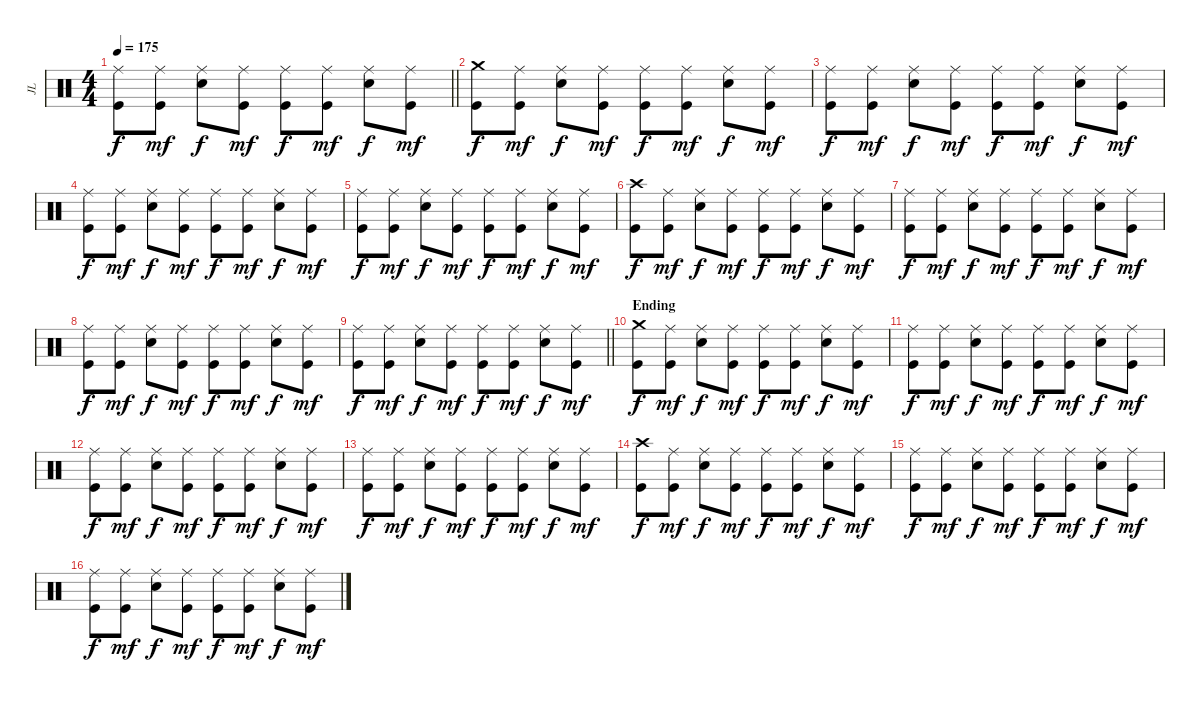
\track ("JL" "JL") {instrument percussion}
\staff {score}
\articulation defaults
\ts (4 4)
\tempo 175
\clef neutral
\barLineRight lightlight
\ks c
("Ride (middle)" "Kick (hit)").8{dy f} ("Ride (middle)" "Kick (hit)").8{dy mf} ("Ride (middle)" "Electric Snare (hit)").8{dy f} ("Ride (middle)" "Kick (hit)").8{dy mf} ("Ride (middle)" "Kick (hit)").8{dy f} ("Ride (middle)" "Kick (hit)").8{dy mf} ("Ride (middle)" "Electric Snare (hit)").8{dy f} ("Ride (middle)" "Kick (hit)").8{dy mf} |
("Crash medium (hit)" "Kick (hit)").8{dy f} ("Ride (middle)" "Kick (hit)").8{dy mf} ("Ride (middle)" "Electric Snare (hit)").8{dy f} ("Ride (middle)" "Kick (hit)").8{dy mf} ("Ride (middle)" "Kick (hit)").8{dy f} ("Ride (middle)" "Kick (hit)").8{dy mf} ("Ride (middle)" "Electric Snare (hit)").8{dy f} ("Ride (middle)" "Kick (hit)").8{dy mf} |
("Ride (middle)" "Kick (hit)").8{dy f} ("Ride (middle)" "Kick (hit)").8{dy mf} ("Ride (middle)" "Electric Snare (hit)").8{dy f} ("Ride (middle)" "Kick (hit)").8{dy mf} ("Ride (middle)" "Kick (hit)").8{dy f} ("Ride (middle)" "Kick (hit)").8{dy mf} ("Ride (middle)" "Electric Snare (hit)").8{dy f} ("Ride (middle)" "Kick (hit)").8{dy mf} |
("Ride (middle)" "Kick (hit)").8{dy f} ("Ride (middle)" "Kick (hit)").8{dy mf} ("Ride (middle)" "Electric Snare (hit)").8{dy f} ("Ride (middle)" "Kick (hit)").8{dy mf} ("Ride (middle)" "Kick (hit)").8{dy f} ("Ride (middle)" "Kick (hit)").8{dy mf} ("Ride (middle)" "Electric Snare (hit)").8{dy f} ("Ride (middle)" "Kick (hit)").8{dy mf} |
("Ride (middle)" "Kick (hit)").8{dy f} ("Ride (middle)" "Kick (hit)").8{dy mf} ("Ride (middle)" "Electric Snare (hit)").8{dy f} ("Ride (middle)" "Kick (hit)").8{dy mf} ("Ride (middle)" "Kick (hit)").8{dy f} ("Ride (middle)" "Kick (hit)").8{dy mf} ("Ride (middle)" "Electric Snare (hit)").8{dy f} ("Ride (middle)" "Kick (hit)").8{dy mf} |
("Crash high (hit)" "Kick (hit)").8{dy f} ("Ride (middle)" "Kick (hit)").8{dy mf} ("Ride (middle)" "Electric Snare (hit)").8{dy f} ("Ride (middle)" "Kick (hit)").8{dy mf} ("Ride (middle)" "Kick (hit)").8{dy f} ("Ride (middle)" "Kick (hit)").8{dy mf} ("Ride (middle)" "Electric Snare (hit)").8{dy f} ("Ride (middle)" "Kick (hit)").8{dy mf} |
("Ride (middle)" "Kick (hit)").8{dy f} ("Ride (middle)" "Kick (hit)").8{dy mf} ("Ride (middle)" "Electric Snare (hit)").8{dy f} ("Ride (middle)" "Kick (hit)").8{dy mf} ("Ride (middle)" "Kick (hit)").8{dy f} ("Ride (middle)" "Kick (hit)").8{dy mf} ("Ride (middle)" "Electric Snare (hit)").8{dy f} ("Ride (middle)" "Kick (hit)").8{dy mf} |
("Ride (middle)" "Kick (hit)").8{dy f} ("Ride (middle)" "Kick (hit)").8{dy mf} ("Ride (middle)" "Electric Snare (hit)").8{dy f} ("Ride (middle)" "Kick (hit)").8{dy mf} ("Ride (middle)" "Kick (hit)").8{dy f} ("Ride (middle)" "Kick (hit)").8{dy mf} ("Ride (middle)" "Electric Snare (hit)").8{dy f} ("Ride (middle)" "Kick (hit)").8{dy mf} |
\barLineRight lightlight
("Ride (middle)" "Kick (hit)").8{dy f} ("Ride (middle)" "Kick (hit)").8{dy mf} ("Ride (middle)" "Electric Snare (hit)").8{dy f} ("Ride (middle)" "Kick (hit)").8{dy mf} ("Ride (middle)" "Kick (hit)").8{dy f} ("Ride (middle)" "Kick (hit)").8{dy mf} ("Ride (middle)" "Electric Snare (hit)").8{dy f} ("Ride (middle)" "Kick (hit)").8{dy mf} |
\section ("" "Ending")
("Crash medium (hit)" "Kick (hit)").8{dy f} ("Ride (middle)" "Kick (hit)").8{dy mf} ("Ride (middle)" "Electric Snare (hit)").8{dy f} ("Ride (middle)" "Kick (hit)").8{dy mf} ("Ride (middle)" "Kick (hit)").8{dy f} ("Ride (middle)" "Kick (hit)").8{dy mf} ("Ride (middle)" "Electric Snare (hit)").8{dy f} ("Ride (middle)" "Kick (hit)").8{dy mf} |
("Ride (middle)" "Kick (hit)").8{dy f} ("Ride (middle)" "Kick (hit)").8{dy mf} ("Ride (middle)" "Electric Snare (hit)").8{dy f} ("Ride (middle)" "Kick (hit)").8{dy mf} ("Ride (middle)" "Kick (hit)").8{dy f} ("Ride (middle)" "Kick (hit)").8{dy mf} ("Ride (middle)" "Electric Snare (hit)").8{dy f} ("Ride (middle)" "Kick (hit)").8{dy mf} |
("Ride (middle)" "Kick (hit)").8{dy f} ("Ride (middle)" "Kick (hit)").8{dy mf} ("Ride (middle)" "Electric Snare (hit)").8{dy f} ("Ride (middle)" "Kick (hit)").8{dy mf} ("Ride (middle)" "Kick (hit)").8{dy f} ("Ride (middle)" "Kick (hit)").8{dy mf} ("Ride (middle)" "Electric Snare (hit)").8{dy f} ("Ride (middle)" "Kick (hit)").8{dy mf} |
("Ride (middle)" "Kick (hit)").8{dy f} ("Ride (middle)" "Kick (hit)").8{dy mf} ("Ride (middle)" "Electric Snare (hit)").8{dy f} ("Ride (middle)" "Kick (hit)").8{dy mf} ("Ride (middle)" "Kick (hit)").8{dy f} ("Ride (middle)" "Kick (hit)").8{dy mf} ("Ride (middle)" "Electric Snare (hit)").8{dy f} ("Ride (middle)" "Kick (hit)").8{dy mf} |
("Crash high (hit)" "Kick (hit)").8{dy f} ("Ride (middle)" "Kick (hit)").8{dy mf} ("Ride (middle)" "Electric Snare (hit)").8{dy f} ("Ride (middle)" "Kick (hit)").8{dy mf} ("Ride (middle)" "Kick (hit)").8{dy f} ("Ride (middle)" "Kick (hit)").8{dy mf} ("Ride (middle)" "Electric Snare (hit)").8{dy f} ("Ride (middle)" "Kick (hit)").8{dy mf} |
("Ride (middle)" "Kick (hit)").8{dy f} ("Ride (middle)" "Kick (hit)").8{dy mf} ("Ride (middle)" "Electric Snare (hit)").8{dy f} ("Ride (middle)" "Kick (hit)").8{dy mf} ("Ride (middle)" "Kick (hit)").8{dy f} ("Ride (middle)" "Kick (hit)").8{dy mf} ("Ride (middle)" "Electric Snare (hit)").8{dy f} ("Ride (middle)" "Kick (hit)").8{dy mf} |
("Ride (middle)" "Kick (hit)").8{dy f} ("Ride (middle)" "Kick (hit)").8{dy mf} ("Ride (middle)" "Electric Snare (hit)").8{dy f} ("Ride (middle)" "Kick (hit)").8{dy mf} ("Ride (middle)" "Kick (hit)").8{dy f} ("Ride (middle)" "Kick (hit)").8{dy mf} ("Ride (middle)" "Electric Snare (hit)").8{dy f} ("Ride (middle)" "Kick (hit)").8{dy mf}
